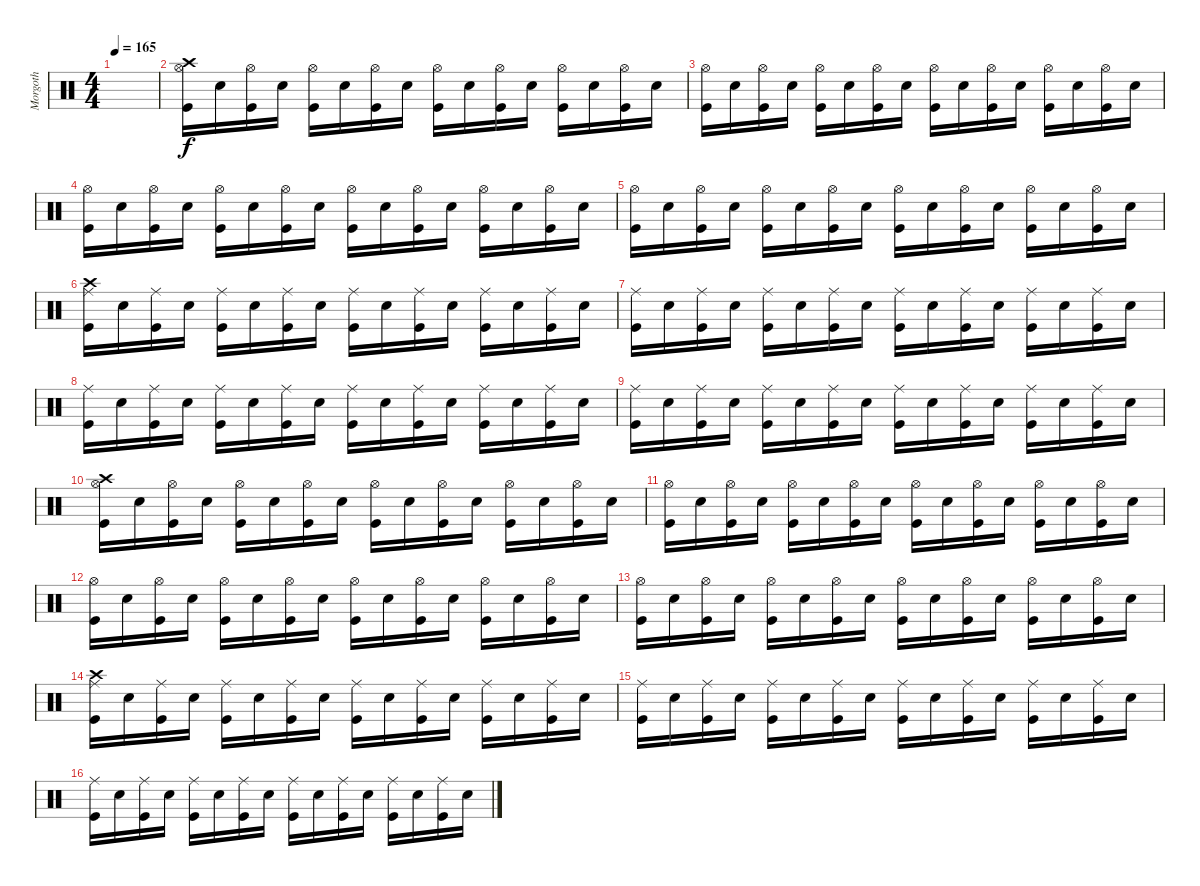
\track ("Morgoth" "Morgoth") {instrument percussion}
\staff {score}
\articulation defaults
\ts (4 4)
\tempo 165
\clef neutral
\ks c
|
("Kick (hit)" "Crash high (hit)" "Hi-Hat (open)").16 "Snare (hit) 2".16 ("Kick (hit)" "Hi-Hat (open)").16 "Snare (hit) 2".16 ("Kick (hit)" "Hi-Hat (open)").16 "Snare (hit) 2".16 ("Kick (hit)" "Hi-Hat (open)").16 "Snare (hit) 2".16 ("Kick (hit)" "Hi-Hat (open)").16 "Snare (hit) 2".16 ("Kick (hit)" "Hi-Hat (open)").16 "Snare (hit) 2".16 ("Kick (hit)" "Hi-Hat (open)").16 "Snare (hit) 2".16 ("Kick (hit)" "Hi-Hat (open)").16 "Snare (hit) 2".16 |
("Kick (hit)" "Hi-Hat (open)").16 "Snare (hit) 2".16 ("Kick (hit)" "Hi-Hat (open)").16 "Snare (hit) 2".16 ("Kick (hit)" "Hi-Hat (open)").16 "Snare (hit) 2".16 ("Kick (hit)" "Hi-Hat (open)").16 "Snare (hit) 2".16 ("Kick (hit)" "Hi-Hat (open)").16 "Snare (hit) 2".16 ("Kick (hit)" "Hi-Hat (open)").16 "Snare (hit) 2".16 ("Kick (hit)" "Hi-Hat (open)").16 "Snare (hit) 2".16 ("Kick (hit)" "Hi-Hat (open)").16 "Snare (hit) 2".16 |
("Kick (hit)" "Hi-Hat (open)").16 "Snare (hit) 2".16 ("Kick (hit)" "Hi-Hat (open)").16 "Snare (hit) 2".16 ("Kick (hit)" "Hi-Hat (open)").16 "Snare (hit) 2".16 ("Kick (hit)" "Hi-Hat (open)").16 "Snare (hit) 2".16 ("Kick (hit)" "Hi-Hat (open)").16 "Snare (hit) 2".16 ("Kick (hit)" "Hi-Hat (open)").16 "Snare (hit) 2".16 ("Kick (hit)" "Hi-Hat (open)").16 "Snare (hit) 2".16 ("Kick (hit)" "Hi-Hat (open)").16 "Snare (hit) 2".16 |
("Kick (hit)" "Hi-Hat (open)").16 "Snare (hit) 2".16 ("Kick (hit)" "Hi-Hat (open)").16 "Snare (hit) 2".16 ("Kick (hit)" "Hi-Hat (open)").16 "Snare (hit) 2".16 ("Kick (hit)" "Hi-Hat (open)").16 "Snare (hit) 2".16 ("Kick (hit)" "Hi-Hat (open)").16 "Snare (hit) 2".16 ("Kick (hit)" "Hi-Hat (open)").16 "Snare (hit) 2".16 ("Kick (hit)" "Hi-Hat (open)").16 "Snare (hit) 2".16 ("Kick (hit)" "Hi-Hat (open)").16 "Snare (hit) 2".16 |
("Kick (hit)" "Crash high (hit)" "Ride (middle)").16 "Snare (hit) 2".16 ("Kick (hit)" "Ride (middle)").16 "Snare (hit) 2".16 ("Kick (hit)" "Ride (middle)").16 "Snare (hit) 2".16 ("Kick (hit)" "Ride (middle)").16 "Snare (hit) 2".16 ("Kick (hit)" "Ride (middle)").16 "Snare (hit) 2".16 ("Kick (hit)" "Ride (middle)").16 "Snare (hit) 2".16 ("Kick (hit)" "Ride (middle)").16 "Snare (hit) 2".16 ("Kick (hit)" "Ride (middle)").16 "Snare (hit) 2".16 |
("Kick (hit)" "Ride (middle)").16 "Snare (hit) 2".16 ("Kick (hit)" "Ride (middle)").16 "Snare (hit) 2".16 ("Kick (hit)" "Ride (middle)").16 "Snare (hit) 2".16 ("Kick (hit)" "Ride (middle)").16 "Snare (hit) 2".16 ("Kick (hit)" "Ride (middle)").16 "Snare (hit) 2".16 ("Kick (hit)" "Ride (middle)").16 "Snare (hit) 2".16 ("Kick (hit)" "Ride (middle)").16 "Snare (hit) 2".16 ("Kick (hit)" "Ride (middle)").16 "Snare (hit) 2".16 |
("Kick (hit)" "Ride (middle)").16 "Snare (hit) 2".16 ("Kick (hit)" "Ride (middle)").16 "Snare (hit) 2".16 ("Kick (hit)" "Ride (middle)").16 "Snare (hit) 2".16 ("Kick (hit)" "Ride (middle)").16 "Snare (hit) 2".16 ("Kick (hit)" "Ride (middle)").16 "Snare (hit) 2".16 ("Kick (hit)" "Ride (middle)").16 "Snare (hit) 2".16 ("Kick (hit)" "Ride (middle)").16 "Snare (hit) 2".16 ("Kick (hit)" "Ride (middle)").16 "Snare (hit) 2".16 |
("Kick (hit)" "Ride (middle)").16 "Snare (hit) 2".16 ("Kick (hit)" "Ride (middle)").16 "Snare (hit) 2".16 ("Kick (hit)" "Ride (middle)").16 "Snare (hit) 2".16 ("Kick (hit)" "Ride (middle)").16 "Snare (hit) 2".16 ("Kick (hit)" "Ride (middle)").16 "Snare (hit) 2".16 ("Kick (hit)" "Ride (middle)").16 "Snare (hit) 2".16 ("Kick (hit)" "Ride (middle)").16 "Snare (hit) 2".16 ("Kick (hit)" "Ride (middle)").16 "Snare (hit) 2".16 |
("Kick (hit)" "Crash high (hit)" "Hi-Hat (open)").16 "Snare (hit) 2".16 ("Kick (hit)" "Hi-Hat (open)").16 "Snare (hit) 2".16 ("Kick (hit)" "Hi-Hat (open)").16 "Snare (hit) 2".16 ("Kick (hit)" "Hi-Hat (open)").16 "Snare (hit) 2".16 ("Kick (hit)" "Hi-Hat (open)").16 "Snare (hit) 2".16 ("Kick (hit)" "Hi-Hat (open)").16 "Snare (hit) 2".16 ("Kick (hit)" "Hi-Hat (open)").16 "Snare (hit) 2".16 ("Kick (hit)" "Hi-Hat (open)").16 "Snare (hit) 2".16 |
("Kick (hit)" "Hi-Hat (open)").16 "Snare (hit) 2".16 ("Kick (hit)" "Hi-Hat (open)").16 "Snare (hit) 2".16 ("Kick (hit)" "Hi-Hat (open)").16 "Snare (hit) 2".16 ("Kick (hit)" "Hi-Hat (open)").16 "Snare (hit) 2".16 ("Kick (hit)" "Hi-Hat (open)").16 "Snare (hit) 2".16 ("Kick (hit)" "Hi-Hat (open)").16 "Snare (hit) 2".16 ("Kick (hit)" "Hi-Hat (open)").16 "Snare (hit) 2".16 ("Kick (hit)" "Hi-Hat (open)").16 "Snare (hit) 2".16 |
("Kick (hit)" "Hi-Hat (open)").16 "Snare (hit) 2".16 ("Kick (hit)" "Hi-Hat (open)").16 "Snare (hit) 2".16 ("Kick (hit)" "Hi-Hat (open)").16 "Snare (hit) 2".16 ("Kick (hit)" "Hi-Hat (open)").16 "Snare (hit) 2".16 ("Kick (hit)" "Hi-Hat (open)").16 "Snare (hit) 2".16 ("Kick (hit)" "Hi-Hat (open)").16 "Snare (hit) 2".16 ("Kick (hit)" "Hi-Hat (open)").16 "Snare (hit) 2".16 ("Kick (hit)" "Hi-Hat (open)").16 "Snare (hit) 2".16 |
("Kick (hit)" "Hi-Hat (open)").16 "Snare (hit) 2".16 ("Kick (hit)" "Hi-Hat (open)").16 "Snare (hit) 2".16 ("Kick (hit)" "Hi-Hat (open)").16 "Snare (hit) 2".16 ("Kick (hit)" "Hi-Hat (open)").16 "Snare (hit) 2".16 ("Kick (hit)" "Hi-Hat (open)").16 "Snare (hit) 2".16 ("Kick (hit)" "Hi-Hat (open)").16 "Snare (hit) 2".16 ("Kick (hit)" "Hi-Hat (open)").16 "Snare (hit) 2".16 ("Kick (hit)" "Hi-Hat (open)").16 "Snare (hit) 2".16 |
("Kick (hit)" "Crash high (hit)" "Ride (middle)").16 "Snare (hit) 2".16 ("Kick (hit)" "Ride (middle)").16 "Snare (hit) 2".16 ("Kick (hit)" "Ride (middle)").16 "Snare (hit) 2".16 ("Kick (hit)" "Ride (middle)").16 "Snare (hit) 2".16 ("Kick (hit)" "Ride (middle)").16 "Snare (hit) 2".16 ("Kick (hit)" "Ride (middle)").16 "Snare (hit) 2".16 ("Kick (hit)" "Ride (middle)").16 "Snare (hit) 2".16 ("Kick (hit)" "Ride (middle)").16 "Snare (hit) 2".16 |
("Kick (hit)" "Ride (middle)").16 "Snare (hit) 2".16 ("Kick (hit)" "Ride (middle)").16 "Snare (hit) 2".16 ("Kick (hit)" "Ride (middle)").16 "Snare (hit) 2".16 ("Kick (hit)" "Ride (middle)").16 "Snare (hit) 2".16 ("Kick (hit)" "Ride (middle)").16 "Snare (hit) 2".16 ("Kick (hit)" "Ride (middle)").16 "Snare (hit) 2".16 ("Kick (hit)" "Ride (middle)").16 "Snare (hit) 2".16 ("Kick (hit)" "Ride (middle)").16 "Snare (hit) 2".16 |
("Kick (hit)" "Ride (middle)").16 "Snare (hit) 2".16 ("Kick (hit)" "Ride (middle)").16 "Snare (hit) 2".16 ("Kick (hit)" "Ride (middle)").16 "Snare (hit) 2".16 ("Kick (hit)" "Ride (middle)").16 "Snare (hit) 2".16 ("Kick (hit)" "Ride (middle)").16 "Snare (hit) 2".16 ("Kick (hit)" "Ride (middle)").16 "Snare (hit) 2".16 ("Kick (hit)" "Ride (middle)").16 "Snare (hit) 2".16 ("Kick (hit)" "Ride (middle)").16 "Snare (hit) 2".16
